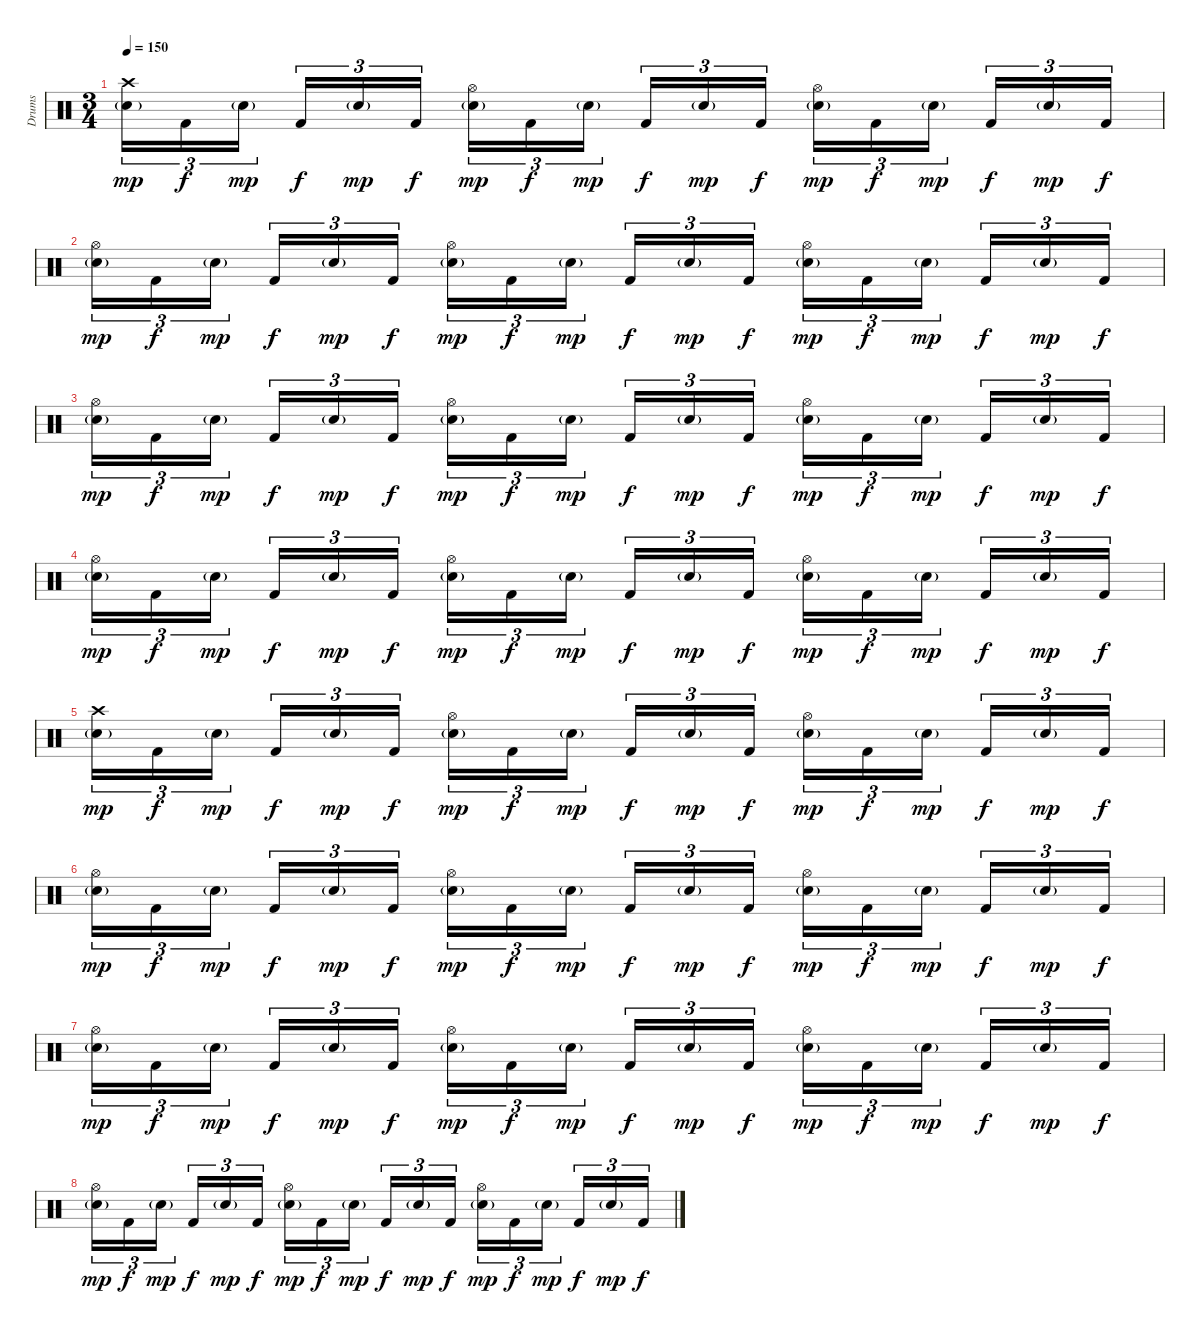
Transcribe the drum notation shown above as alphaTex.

\track ("Drums" "Drums") {instrument percussion}
\staff {score}
\articulation defaults
\ts (3 4)
\tempo 150
\clef neutral
\ks c
("Electric Snare (hit)"{g} "Crash high (hit)").16{tu (3 2) dy mp} "Kick (hit) 2".16{tu (3 2) dy f} "Electric Snare (hit)"{g}.16{tu (3 2) dy mp beam splitsecondary} "Kick (hit) 2".16{tu (3 2) dy f} "Electric Snare (hit)"{g}.16{tu (3 2) dy mp} "Kick (hit) 2".16{tu (3 2) dy f} ("Electric Snare (hit)"{g} "Hi-Hat (open)").16{tu (3 2) dy mp} "Kick (hit) 2".16{tu (3 2) dy f} "Electric Snare (hit)"{g}.16{tu (3 2) dy mp beam splitsecondary} "Kick (hit) 2".16{tu (3 2) dy f} "Electric Snare (hit)"{g}.16{tu (3 2) dy mp} "Kick (hit) 2".16{tu (3 2) dy f} ("Electric Snare (hit)"{g} "Hi-Hat (open)").16{tu (3 2) dy mp} "Kick (hit) 2".16{tu (3 2) dy f} "Electric Snare (hit)"{g}.16{tu (3 2) dy mp beam splitsecondary} "Kick (hit) 2".16{tu (3 2) dy f} "Electric Snare (hit)"{g}.16{tu (3 2) dy mp} "Kick (hit) 2".16{tu (3 2) dy f} |
("Electric Snare (hit)"{g} "Hi-Hat (open)").16{tu (3 2) dy mp} "Kick (hit) 2".16{tu (3 2) dy f} "Electric Snare (hit)"{g}.16{tu (3 2) dy mp beam splitsecondary} "Kick (hit) 2".16{tu (3 2) dy f} "Electric Snare (hit)"{g}.16{tu (3 2) dy mp} "Kick (hit) 2".16{tu (3 2) dy f} ("Electric Snare (hit)"{g} "Hi-Hat (open)").16{tu (3 2) dy mp} "Kick (hit) 2".16{tu (3 2) dy f} "Electric Snare (hit)"{g}.16{tu (3 2) dy mp beam splitsecondary} "Kick (hit) 2".16{tu (3 2) dy f} "Electric Snare (hit)"{g}.16{tu (3 2) dy mp} "Kick (hit) 2".16{tu (3 2) dy f} ("Electric Snare (hit)"{g} "Hi-Hat (open)").16{tu (3 2) dy mp} "Kick (hit) 2".16{tu (3 2) dy f} "Electric Snare (hit)"{g}.16{tu (3 2) dy mp beam splitsecondary} "Kick (hit) 2".16{tu (3 2) dy f} "Electric Snare (hit)"{g}.16{tu (3 2) dy mp} "Kick (hit) 2".16{tu (3 2) dy f} |
("Electric Snare (hit)"{g} "Hi-Hat (open)").16{tu (3 2) dy mp} "Kick (hit) 2".16{tu (3 2) dy f} "Electric Snare (hit)"{g}.16{tu (3 2) dy mp beam splitsecondary} "Kick (hit) 2".16{tu (3 2) dy f} "Electric Snare (hit)"{g}.16{tu (3 2) dy mp} "Kick (hit) 2".16{tu (3 2) dy f} ("Electric Snare (hit)"{g} "Hi-Hat (open)").16{tu (3 2) dy mp} "Kick (hit) 2".16{tu (3 2) dy f} "Electric Snare (hit)"{g}.16{tu (3 2) dy mp beam splitsecondary} "Kick (hit) 2".16{tu (3 2) dy f} "Electric Snare (hit)"{g}.16{tu (3 2) dy mp} "Kick (hit) 2".16{tu (3 2) dy f} ("Electric Snare (hit)"{g} "Hi-Hat (open)").16{tu (3 2) dy mp} "Kick (hit) 2".16{tu (3 2) dy f} "Electric Snare (hit)"{g}.16{tu (3 2) dy mp beam splitsecondary} "Kick (hit) 2".16{tu (3 2) dy f} "Electric Snare (hit)"{g}.16{tu (3 2) dy mp} "Kick (hit) 2".16{tu (3 2) dy f} |
("Electric Snare (hit)"{g} "Hi-Hat (open)").16{tu (3 2) dy mp} "Kick (hit) 2".16{tu (3 2) dy f} "Electric Snare (hit)"{g}.16{tu (3 2) dy mp beam splitsecondary} "Kick (hit) 2".16{tu (3 2) dy f} "Electric Snare (hit)"{g}.16{tu (3 2) dy mp} "Kick (hit) 2".16{tu (3 2) dy f} ("Electric Snare (hit)"{g} "Hi-Hat (open)").16{tu (3 2) dy mp} "Kick (hit) 2".16{tu (3 2) dy f} "Electric Snare (hit)"{g}.16{tu (3 2) dy mp beam splitsecondary} "Kick (hit) 2".16{tu (3 2) dy f} "Electric Snare (hit)"{g}.16{tu (3 2) dy mp} "Kick (hit) 2".16{tu (3 2) dy f} ("Electric Snare (hit)"{g} "Hi-Hat (open)").16{tu (3 2) dy mp} "Kick (hit) 2".16{tu (3 2) dy f} "Electric Snare (hit)"{g}.16{tu (3 2) dy mp beam splitsecondary} "Kick (hit) 2".16{tu (3 2) dy f} "Electric Snare (hit)"{g}.16{tu (3 2) dy mp} "Kick (hit) 2".16{tu (3 2) dy f} |
("Electric Snare (hit)"{g} "Crash high (hit)").16{tu (3 2) dy mp} "Kick (hit) 2".16{tu (3 2) dy f} "Electric Snare (hit)"{g}.16{tu (3 2) dy mp beam splitsecondary} "Kick (hit) 2".16{tu (3 2) dy f} "Electric Snare (hit)"{g}.16{tu (3 2) dy mp} "Kick (hit) 2".16{tu (3 2) dy f} ("Electric Snare (hit)"{g} "Hi-Hat (open)").16{tu (3 2) dy mp} "Kick (hit) 2".16{tu (3 2) dy f} "Electric Snare (hit)"{g}.16{tu (3 2) dy mp beam splitsecondary} "Kick (hit) 2".16{tu (3 2) dy f} "Electric Snare (hit)"{g}.16{tu (3 2) dy mp} "Kick (hit) 2".16{tu (3 2) dy f} ("Electric Snare (hit)"{g} "Hi-Hat (open)").16{tu (3 2) dy mp} "Kick (hit) 2".16{tu (3 2) dy f} "Electric Snare (hit)"{g}.16{tu (3 2) dy mp beam splitsecondary} "Kick (hit) 2".16{tu (3 2) dy f} "Electric Snare (hit)"{g}.16{tu (3 2) dy mp} "Kick (hit) 2".16{tu (3 2) dy f} |
("Electric Snare (hit)"{g} "Hi-Hat (open)").16{tu (3 2) dy mp} "Kick (hit) 2".16{tu (3 2) dy f} "Electric Snare (hit)"{g}.16{tu (3 2) dy mp beam splitsecondary} "Kick (hit) 2".16{tu (3 2) dy f} "Electric Snare (hit)"{g}.16{tu (3 2) dy mp} "Kick (hit) 2".16{tu (3 2) dy f} ("Electric Snare (hit)"{g} "Hi-Hat (open)").16{tu (3 2) dy mp} "Kick (hit) 2".16{tu (3 2) dy f} "Electric Snare (hit)"{g}.16{tu (3 2) dy mp beam splitsecondary} "Kick (hit) 2".16{tu (3 2) dy f} "Electric Snare (hit)"{g}.16{tu (3 2) dy mp} "Kick (hit) 2".16{tu (3 2) dy f} ("Electric Snare (hit)"{g} "Hi-Hat (open)").16{tu (3 2) dy mp} "Kick (hit) 2".16{tu (3 2) dy f} "Electric Snare (hit)"{g}.16{tu (3 2) dy mp beam splitsecondary} "Kick (hit) 2".16{tu (3 2) dy f} "Electric Snare (hit)"{g}.16{tu (3 2) dy mp} "Kick (hit) 2".16{tu (3 2) dy f} |
("Electric Snare (hit)"{g} "Hi-Hat (open)").16{tu (3 2) dy mp} "Kick (hit) 2".16{tu (3 2) dy f} "Electric Snare (hit)"{g}.16{tu (3 2) dy mp beam splitsecondary} "Kick (hit) 2".16{tu (3 2) dy f} "Electric Snare (hit)"{g}.16{tu (3 2) dy mp} "Kick (hit) 2".16{tu (3 2) dy f} ("Electric Snare (hit)"{g} "Hi-Hat (open)").16{tu (3 2) dy mp} "Kick (hit) 2".16{tu (3 2) dy f} "Electric Snare (hit)"{g}.16{tu (3 2) dy mp beam splitsecondary} "Kick (hit) 2".16{tu (3 2) dy f} "Electric Snare (hit)"{g}.16{tu (3 2) dy mp} "Kick (hit) 2".16{tu (3 2) dy f} ("Electric Snare (hit)"{g} "Hi-Hat (open)").16{tu (3 2) dy mp} "Kick (hit) 2".16{tu (3 2) dy f} "Electric Snare (hit)"{g}.16{tu (3 2) dy mp beam splitsecondary} "Kick (hit) 2".16{tu (3 2) dy f} "Electric Snare (hit)"{g}.16{tu (3 2) dy mp} "Kick (hit) 2".16{tu (3 2) dy f} |
("Electric Snare (hit)"{g} "Hi-Hat (open)").16{tu (3 2) dy mp} "Kick (hit) 2".16{tu (3 2) dy f} "Electric Snare (hit)"{g}.16{tu (3 2) dy mp beam splitsecondary} "Kick (hit) 2".16{tu (3 2) dy f} "Electric Snare (hit)"{g}.16{tu (3 2) dy mp} "Kick (hit) 2".16{tu (3 2) dy f} ("Electric Snare (hit)"{g} "Hi-Hat (open)").16{tu (3 2) dy mp} "Kick (hit) 2".16{tu (3 2) dy f} "Electric Snare (hit)"{g}.16{tu (3 2) dy mp beam splitsecondary} "Kick (hit) 2".16{tu (3 2) dy f} "Electric Snare (hit)"{g}.16{tu (3 2) dy mp} "Kick (hit) 2".16{tu (3 2) dy f} ("Electric Snare (hit)"{g} "Hi-Hat (open)").16{tu (3 2) dy mp} "Kick (hit) 2".16{tu (3 2) dy f} "Electric Snare (hit)"{g}.16{tu (3 2) dy mp beam splitsecondary} "Kick (hit) 2".16{tu (3 2) dy f} "Electric Snare (hit)"{g}.16{tu (3 2) dy mp} "Kick (hit) 2".16{tu (3 2) dy f}
